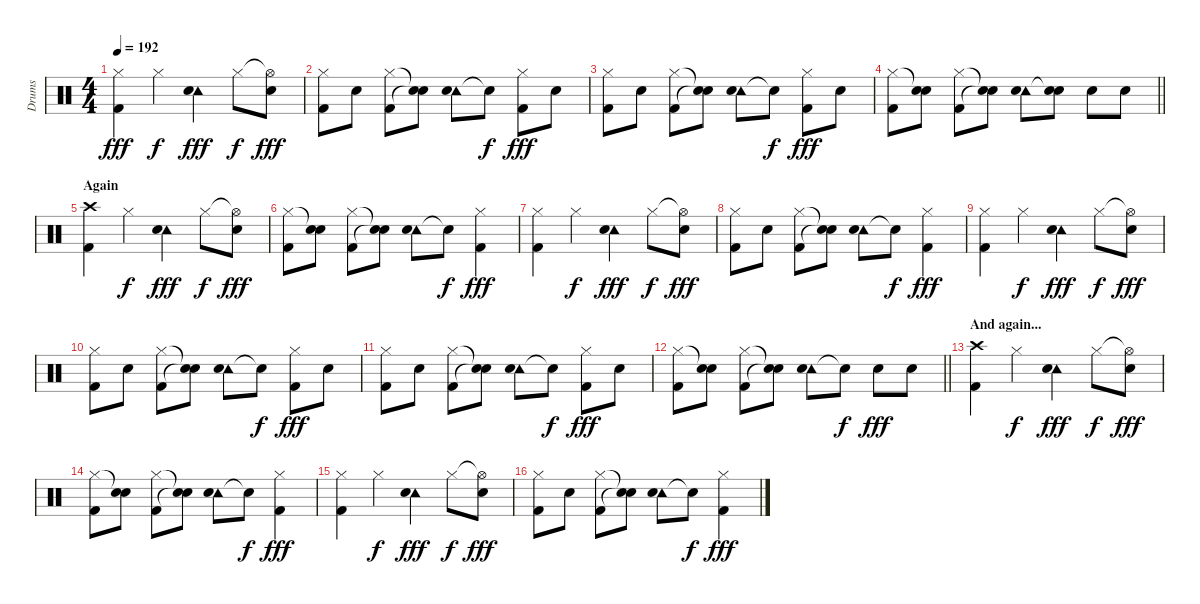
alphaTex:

\track ("Drums" "Drums") {instrument percussion}
\staff {score}
\articulation defaults
\ts (4 4)
\tempo 192
\clef neutral
\ks c
("Hi-Hat (closed)" "Kick (hit) 2").4{dy fff} "Hi-Hat (closed)".4{dy f} ("Tambourine (hit)" "Snare (hit) 2").4{dy fff} "Hi-Hat (closed)".8{dy f} ("Hi-Hat (open)"{t} "Snare (hit) 2").8{dy fff} |
("Hi-Hat (closed)" "Kick (hit) 2").8 "Snare (hit) 2".8 ("Hi-Hat (closed)" "Kick (hit) 2").8 ("Snare (hit)"{t} "Snare (hit)"{t}).8 ("Tambourine (hit)" "Snare (hit) 2").8 "Snare (hit)"{t}.8{dy f} ("Hi-Hat (closed)" "Kick (hit) 2").8{dy fff} "Snare (hit) 2".8 |
("Hi-Hat (closed)" "Kick (hit) 2").8 "Snare (hit) 2".8 ("Hi-Hat (closed)" "Kick (hit) 2").8 ("Snare (hit)"{t} "Snare (hit)"{t}).8 ("Tambourine (hit)" "Snare (hit) 2").8 "Snare (hit)"{t}.8{dy f} ("Hi-Hat (closed)" "Kick (hit) 2").8{dy fff} "Snare (hit) 2".8 |
\barLineRight lightlight
("Hi-Hat (closed)" "Kick (hit) 2").8 ("Snare (hit)"{t} "Snare (hit) 2").8 ("Hi-Hat (closed)" "Kick (hit) 2").8 ("Snare (hit)"{t} "Snare (hit)"{t}).8 ("Tambourine (hit)" "Snare (hit) 2").8 ("Snare (hit)"{t} "Snare (hit) 2").8 "Snare (hit) 2".8 "Snare (hit) 2".8 |
\section ("" "Again")
("Crash high (hit)" "Kick (hit) 2").4 "Hi-Hat (closed)".4{dy f} ("Tambourine (hit)" "Snare (hit) 2").4{dy fff} "Hi-Hat (closed)".8{dy f} ("Hi-Hat (open)"{t} "Snare (hit) 2").8{dy fff} |
("Hi-Hat (closed)" "Kick (hit) 2").8 ("Snare (hit)"{t} "Snare (hit) 2").8 ("Hi-Hat (closed)" "Kick (hit) 2").8 ("Snare (hit)"{t} "Snare (hit)"{t}).8 ("Tambourine (hit)" "Snare (hit) 2").8 "Snare (hit)"{t}.8{dy f} ("Hi-Hat (closed)" "Kick (hit) 2").4{dy fff} |
("Hi-Hat (closed)" "Kick (hit) 2").4 "Hi-Hat (closed)".4{dy f} ("Tambourine (hit)" "Snare (hit) 2").4{dy fff} "Hi-Hat (closed)".8{dy f} ("Hi-Hat (open)"{t} "Snare (hit) 2").8{dy fff} |
("Hi-Hat (closed)" "Kick (hit) 2").8 "Snare (hit) 2".8 ("Hi-Hat (closed)" "Kick (hit) 2").8 ("Snare (hit)"{t} "Snare (hit)"{t}).8 ("Tambourine (hit)" "Snare (hit) 2").8 "Snare (hit)"{t}.8{dy f} ("Hi-Hat (closed)" "Kick (hit) 2").4{dy fff} |
("Hi-Hat (closed)" "Kick (hit) 2").4 "Hi-Hat (closed)".4{dy f} ("Tambourine (hit)" "Snare (hit) 2").4{dy fff} "Hi-Hat (closed)".8{dy f} ("Hi-Hat (open)"{t} "Snare (hit) 2").8{dy fff} |
("Hi-Hat (closed)" "Kick (hit) 2").8 "Snare (hit) 2".8 ("Hi-Hat (closed)" "Kick (hit) 2").8 ("Snare (hit)"{t} "Snare (hit)"{t}).8 ("Tambourine (hit)" "Snare (hit) 2").8 "Snare (hit)"{t}.8{dy f} ("Hi-Hat (closed)" "Kick (hit) 2").8{dy fff} "Snare (hit) 2".8 |
("Hi-Hat (closed)" "Kick (hit) 2").8 "Snare (hit) 2".8 ("Hi-Hat (closed)" "Kick (hit) 2").8 ("Snare (hit)"{t} "Snare (hit)"{t}).8 ("Tambourine (hit)" "Snare (hit) 2").8 "Snare (hit)"{t}.8{dy f} ("Hi-Hat (closed)" "Kick (hit) 2").8{dy fff} "Snare (hit) 2".8 |
\barLineRight lightlight
("Hi-Hat (closed)" "Kick (hit) 2").8 ("Snare (hit)"{t} "Snare (hit) 2").8 ("Hi-Hat (closed)" "Kick (hit) 2").8 ("Snare (hit)"{t} "Snare (hit)"{t}).8 ("Tambourine (hit)" "Snare (hit) 2").8 "Snare (hit)"{t}.8{dy f} "Snare (hit) 2".8{dy fff} "Snare (hit) 2".8 |
\section ("" "And again...")
("Crash high (hit)" "Kick (hit) 2").4 "Hi-Hat (closed)".4{dy f} ("Tambourine (hit)" "Snare (hit) 2").4{dy fff} "Hi-Hat (closed)".8{dy f} ("Hi-Hat (open)"{t} "Snare (hit) 2").8{dy fff} |
("Hi-Hat (closed)" "Kick (hit) 2").8 ("Snare (hit)"{t} "Snare (hit) 2").8 ("Hi-Hat (closed)" "Kick (hit) 2").8 ("Snare (hit)"{t} "Snare (hit)"{t}).8 ("Tambourine (hit)" "Snare (hit) 2").8 "Snare (hit)"{t}.8{dy f} ("Hi-Hat (closed)" "Kick (hit) 2").4{dy fff} |
("Hi-Hat (closed)" "Kick (hit) 2").4 "Hi-Hat (closed)".4{dy f} ("Tambourine (hit)" "Snare (hit) 2").4{dy fff} "Hi-Hat (closed)".8{dy f} ("Hi-Hat (open)"{t} "Snare (hit) 2").8{dy fff} |
("Hi-Hat (closed)" "Kick (hit) 2").8 "Snare (hit) 2".8 ("Hi-Hat (closed)" "Kick (hit) 2").8 ("Snare (hit)"{t} "Snare (hit)"{t}).8 ("Tambourine (hit)" "Snare (hit) 2").8 "Snare (hit)"{t}.8{dy f} ("Hi-Hat (closed)" "Kick (hit) 2").4{dy fff}
